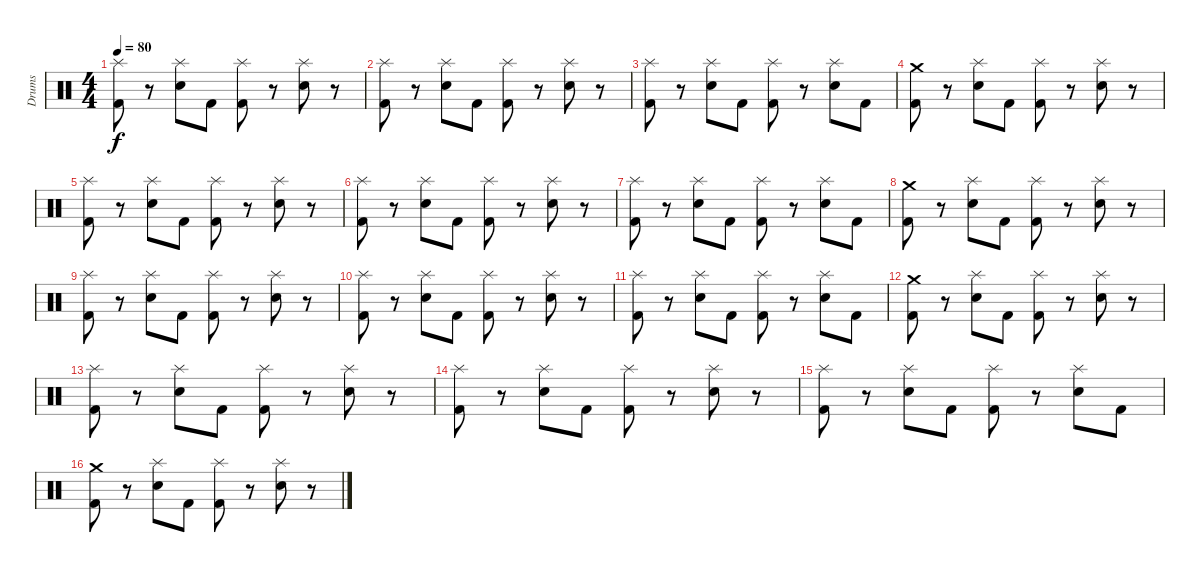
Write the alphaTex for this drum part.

\track ("Drums" "Drums") {instrument percussion}
\staff {score}
\articulation defaults
\ts (4 4)
\tempo 80
\clef neutral
\ks c
("Splash (hit)" "Kick (hit) 2").8{dy f} r.8 ("Splash (hit)" "Electric Snare (hit)").8 "Kick (hit) 2".8 ("Splash (hit)" "Kick (hit) 2").8 r.8 ("Splash (hit)" "Electric Snare (hit)").8 r.8 |
("Splash (hit)" "Kick (hit) 2").8 r.8 ("Splash (hit)" "Electric Snare (hit)").8 "Kick (hit) 2".8 ("Splash (hit)" "Kick (hit) 2").8 r.8 ("Splash (hit)" "Electric Snare (hit)").8 r.8 |
("Splash (hit)" "Kick (hit) 2").8 r.8 ("Splash (hit)" "Electric Snare (hit)").8 "Kick (hit) 2".8 ("Splash (hit)" "Kick (hit) 2").8 r.8 ("Splash (hit)" "Electric Snare (hit)").8 "Kick (hit) 2".8 |
("Crash medium (hit)" "Kick (hit) 2").8 r.8 ("Splash (hit)" "Electric Snare (hit)").8 "Kick (hit) 2".8 ("Splash (hit)" "Kick (hit) 2").8 r.8 ("Splash (hit)" "Electric Snare (hit)").8 r.8 |
("Splash (hit)" "Kick (hit) 2").8 r.8 ("Splash (hit)" "Electric Snare (hit)").8 "Kick (hit) 2".8 ("Splash (hit)" "Kick (hit) 2").8 r.8 ("Splash (hit)" "Electric Snare (hit)").8 r.8 |
("Splash (hit)" "Kick (hit) 2").8 r.8 ("Splash (hit)" "Electric Snare (hit)").8 "Kick (hit) 2".8 ("Splash (hit)" "Kick (hit) 2").8 r.8 ("Splash (hit)" "Electric Snare (hit)").8 r.8 |
("Splash (hit)" "Kick (hit) 2").8 r.8 ("Splash (hit)" "Electric Snare (hit)").8 "Kick (hit) 2".8 ("Splash (hit)" "Kick (hit) 2").8 r.8 ("Splash (hit)" "Electric Snare (hit)").8 "Kick (hit) 2".8 |
("Crash medium (hit)" "Kick (hit) 2").8 r.8 ("Splash (hit)" "Electric Snare (hit)").8 "Kick (hit) 2".8 ("Splash (hit)" "Kick (hit) 2").8 r.8 ("Splash (hit)" "Electric Snare (hit)").8 r.8 |
("Splash (hit)" "Kick (hit) 2").8 r.8 ("Splash (hit)" "Electric Snare (hit)").8 "Kick (hit) 2".8 ("Splash (hit)" "Kick (hit) 2").8 r.8 ("Splash (hit)" "Electric Snare (hit)").8 r.8 |
("Splash (hit)" "Kick (hit) 2").8 r.8 ("Splash (hit)" "Electric Snare (hit)").8 "Kick (hit) 2".8 ("Splash (hit)" "Kick (hit) 2").8 r.8 ("Splash (hit)" "Electric Snare (hit)").8 r.8 |
("Splash (hit)" "Kick (hit) 2").8 r.8 ("Splash (hit)" "Electric Snare (hit)").8 "Kick (hit) 2".8 ("Splash (hit)" "Kick (hit) 2").8 r.8 ("Splash (hit)" "Electric Snare (hit)").8 "Kick (hit) 2".8 |
("Crash medium (hit)" "Kick (hit) 2").8 r.8 ("Splash (hit)" "Electric Snare (hit)").8 "Kick (hit) 2".8 ("Splash (hit)" "Kick (hit) 2").8 r.8 ("Splash (hit)" "Electric Snare (hit)").8 r.8 |
("Splash (hit)" "Kick (hit) 2").8 r.8 ("Splash (hit)" "Electric Snare (hit)").8 "Kick (hit) 2".8 ("Splash (hit)" "Kick (hit) 2").8 r.8 ("Splash (hit)" "Electric Snare (hit)").8 r.8 |
("Splash (hit)" "Kick (hit) 2").8 r.8 ("Splash (hit)" "Electric Snare (hit)").8 "Kick (hit) 2".8 ("Splash (hit)" "Kick (hit) 2").8 r.8 ("Splash (hit)" "Electric Snare (hit)").8 r.8 |
("Splash (hit)" "Kick (hit) 2").8 r.8 ("Splash (hit)" "Electric Snare (hit)").8 "Kick (hit) 2".8 ("Splash (hit)" "Kick (hit) 2").8 r.8 ("Splash (hit)" "Electric Snare (hit)").8 "Kick (hit) 2".8 |
("Crash medium (hit)" "Kick (hit) 2").8 r.8 ("Splash (hit)" "Electric Snare (hit)").8 "Kick (hit) 2".8 ("Splash (hit)" "Kick (hit) 2").8 r.8 ("Splash (hit)" "Electric Snare (hit)").8 r.8
